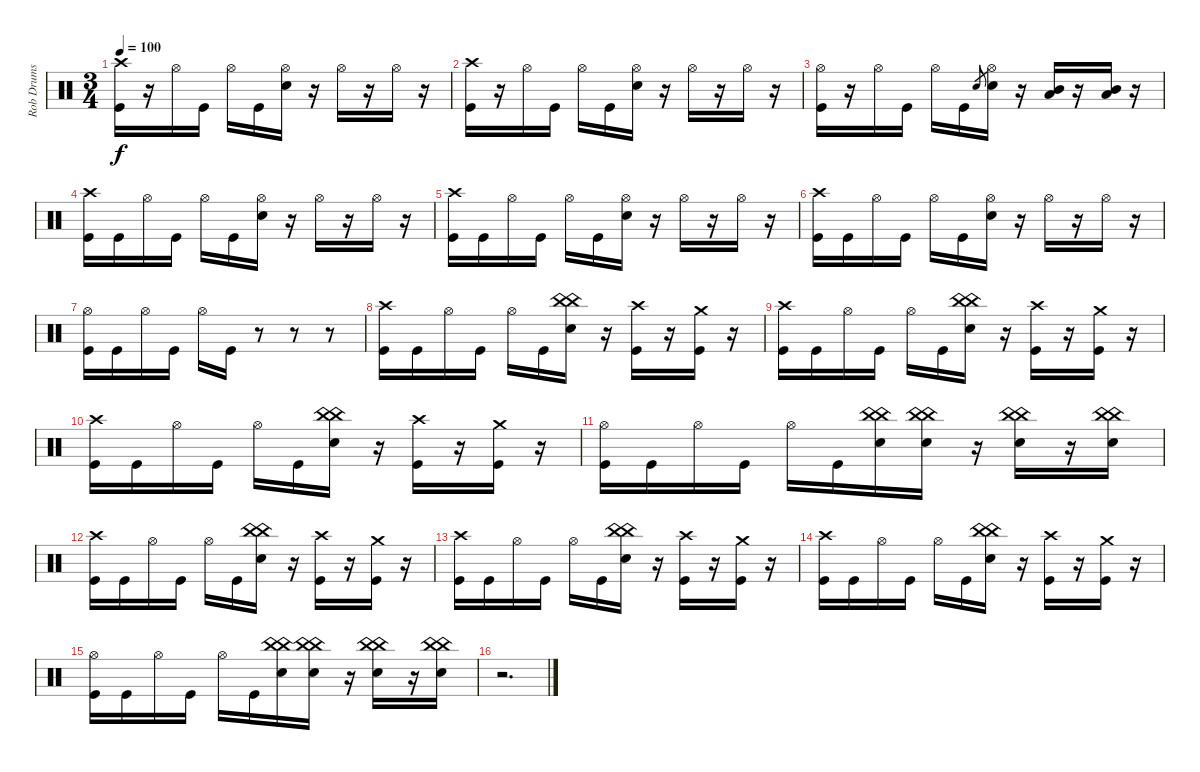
\track ("Rob Drums" "Rob Drums") {instrument percussion}
\staff {score}
\articulation defaults
\ts (3 4)
\tempo 100
\clef neutral
\ks c
("Crash high (hit)" "Kick (hit)").16{dy f} r.16 "Hi-Hat (open)".16 "Kick (hit)".16 "Hi-Hat (open)".16 "Kick (hit)".16 ("Hi-Hat (open)" "Snare (hit) 2").16 r.16 "Hi-Hat (open)".16 r.16 "Hi-Hat (open)".16 r.16 |
("Crash high (hit)" "Kick (hit)").16 r.16 "Hi-Hat (open)".16 "Kick (hit)".16 "Hi-Hat (open)".16 "Kick (hit)".16 ("Hi-Hat (open)" "Snare (hit) 2").16 r.16 "Hi-Hat (open)".16 r.16 "Hi-Hat (open)".16 r.16 |
("Hi-Hat (open)" "Kick (hit)").16 r.16 "Hi-Hat (open)".16 "Kick (hit)".16 "Hi-Hat (open)".16 "Kick (hit)".16 "Snare (hit) 2".8{gr} ("Hi-Hat (open)" "Snare (hit) 2").16 r.16 ("Mid Tom (hit)" "Low Tom (hit)").16 r.16 ("Mid Tom (hit)" "Low Tom (hit)").16 r.16 |
("Crash high (hit)" "Kick (hit)").16 "Kick (hit)".16 "Hi-Hat (open)".16 "Kick (hit)".16 "Hi-Hat (open)".16 "Kick (hit)".16 ("Hi-Hat (open)" "Snare (hit) 2").16 r.16 "Hi-Hat (open)".16 r.16 "Hi-Hat (open)".16 r.16 |
("Crash high (hit)" "Kick (hit)").16 "Kick (hit)".16 "Hi-Hat (open)".16 "Kick (hit)".16 "Hi-Hat (open)".16 "Kick (hit)".16 ("Hi-Hat (open)" "Snare (hit) 2").16 r.16 "Hi-Hat (open)".16 r.16 "Hi-Hat (open)".16 r.16 |
("Crash high (hit)" "Kick (hit)").16 "Kick (hit)".16 "Hi-Hat (open)".16 "Kick (hit)".16 "Hi-Hat (open)".16 "Kick (hit)".16 ("Hi-Hat (open)" "Snare (hit) 2").16 r.16 "Hi-Hat (open)".16 r.16 "Hi-Hat (open)".16 r.16 |
("Hi-Hat (open)" "Kick (hit)").16 "Kick (hit)".16 "Hi-Hat (open)".16 "Kick (hit)".16 "Hi-Hat (open)".16 "Kick (hit)".16 r.8 r.8 r.8 |
("Crash high (hit)" "Kick (hit)").16 "Kick (hit)".16 "Hi-Hat (open)".16 "Kick (hit)".16 "Hi-Hat (open)".16 "Kick (hit)".16 ("China (hit)" "China (hit)" "Snare (hit) 2").16 r.16 ("Crash high (hit)" "Kick (hit)").16 r.16 ("Crash medium (hit)" "Kick (hit)").16 r.16 |
("Crash high (hit)" "Kick (hit)").16 "Kick (hit)".16 "Hi-Hat (open)".16 "Kick (hit)".16 "Hi-Hat (open)".16 "Kick (hit)".16 ("China (hit)" "China (hit)" "Snare (hit) 2").16 r.16 ("Crash high (hit)" "Kick (hit)").16 r.16 ("Crash medium (hit)" "Kick (hit)").16 r.16 |
("Crash high (hit)" "Kick (hit)").16 "Kick (hit)".16 "Hi-Hat (open)".16 "Kick (hit)".16 "Hi-Hat (open)".16 "Kick (hit)".16 ("China (hit)" "China (hit)" "Snare (hit) 2").16 r.16 ("Crash high (hit)" "Kick (hit)").16 r.16 ("Crash medium (hit)" "Kick (hit)").16 r.16 |
("Hi-Hat (open)" "Kick (hit)").16 "Kick (hit)".16 "Hi-Hat (open)".16 "Kick (hit)".16 "Hi-Hat (open)".16 "Kick (hit)".16 ("China (hit)" "China (hit)" "Snare (hit) 2").16 ("China (hit)" "China (hit)" "Snare (hit) 2").16 r.16 ("China (hit)" "China (hit)" "Snare (hit) 2").16 r.16 ("China (hit)" "China (hit)" "Snare (hit) 2").16 |
("Crash high (hit)" "Kick (hit)").16 "Kick (hit)".16 "Hi-Hat (open)".16 "Kick (hit)".16 "Hi-Hat (open)".16 "Kick (hit)".16 ("China (hit)" "China (hit)" "Snare (hit) 2").16 r.16 ("Crash high (hit)" "Kick (hit)").16 r.16 ("Crash medium (hit)" "Kick (hit)").16 r.16 |
("Crash high (hit)" "Kick (hit)").16 "Kick (hit)".16 "Hi-Hat (open)".16 "Kick (hit)".16 "Hi-Hat (open)".16 "Kick (hit)".16 ("China (hit)" "China (hit)" "Snare (hit) 2").16 r.16 ("Crash high (hit)" "Kick (hit)").16 r.16 ("Crash medium (hit)" "Kick (hit)").16 r.16 |
("Crash high (hit)" "Kick (hit)").16 "Kick (hit)".16 "Hi-Hat (open)".16 "Kick (hit)".16 "Hi-Hat (open)".16 "Kick (hit)".16 ("China (hit)" "China (hit)" "Snare (hit) 2").16 r.16 ("Crash high (hit)" "Kick (hit)").16 r.16 ("Crash medium (hit)" "Kick (hit)").16 r.16 |
("Hi-Hat (open)" "Kick (hit)").16 "Kick (hit)".16 "Hi-Hat (open)".16 "Kick (hit)".16 "Hi-Hat (open)".16 "Kick (hit)".16 ("China (hit)" "China (hit)" "Snare (hit) 2").16 ("China (hit)" "China (hit)" "Snare (hit) 2").16 r.16 ("China (hit)" "China (hit)" "Snare (hit) 2").16 r.16 ("China (hit)" "China (hit)" "Snare (hit) 2").16 |
r.2{d}
